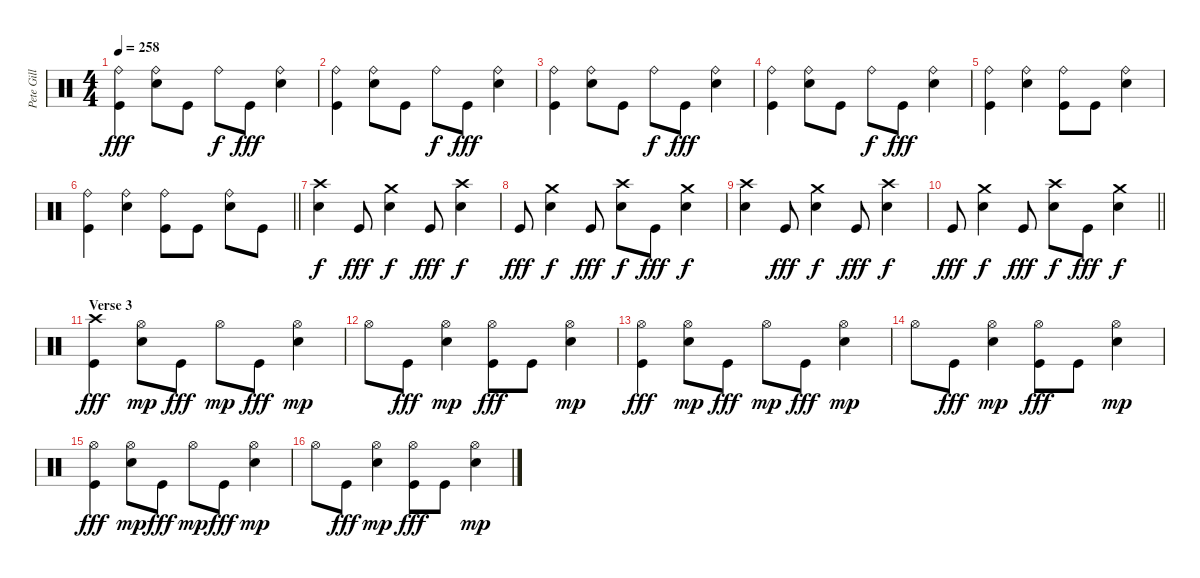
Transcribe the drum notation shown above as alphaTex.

\track ("Pete Gill" "Pete Gill") {instrument percussion}
\staff {score}
\articulation defaults
\ts (4 4)
\tempo 258
\clef neutral
\ks c
("Ride (bell)" "Kick (hit)").4{dy fff} ("Ride (bell)" "Electric Snare (hit)").8 "Kick (hit)".8 "Ride (bell)".8{dy f} "Kick (hit)".8{dy fff} ("Ride (bell)" "Electric Snare (hit)").4 |
("Ride (bell)" "Kick (hit)").4 ("Ride (bell)" "Electric Snare (hit)").8 "Kick (hit)".8 "Ride (bell)".8{dy f} "Kick (hit)".8{dy fff} ("Ride (bell)" "Electric Snare (hit)").4 |
("Ride (bell)" "Kick (hit)").4 ("Ride (bell)" "Electric Snare (hit)").8 "Kick (hit)".8 "Ride (bell)".8{dy f} "Kick (hit)".8{dy fff} ("Ride (bell)" "Electric Snare (hit)").4 |
("Ride (bell)" "Kick (hit)").4 ("Ride (bell)" "Electric Snare (hit)").8 "Kick (hit)".8 "Ride (bell)".8{dy f} "Kick (hit)".8{dy fff} ("Ride (bell)" "Electric Snare (hit)").4 |
("Ride (bell)" "Kick (hit)").4 ("Ride (bell)" "Electric Snare (hit)").4 ("Ride (bell)" "Kick (hit)").8 "Kick (hit)".8 ("Ride (bell)" "Electric Snare (hit)").4 |
\barLineRight lightlight
("Ride (bell)" "Kick (hit)").4 ("Ride (bell)" "Electric Snare (hit)").4 ("Ride (bell)" "Kick (hit)").8 "Kick (hit)".8 ("Ride (bell)" "Electric Snare (hit)").8 "Kick (hit)".8 |
("Crash high (hit)" "Electric Snare (hit)").4{dy f} "Kick (hit)".8{dy fff} ("Crash medium (hit)" "Electric Snare (hit)").4{dy f} "Kick (hit)".8{dy fff} ("Crash high (hit)" "Electric Snare (hit)").4{dy f} |
"Kick (hit)".8{dy fff} ("Crash medium (hit)" "Electric Snare (hit)").4{dy f} "Kick (hit)".8{dy fff} ("Crash high (hit)" "Electric Snare (hit)").8{dy f} "Kick (hit)".8{dy fff} ("Crash medium (hit)" "Electric Snare (hit)").4{dy f} |
("Crash high (hit)" "Electric Snare (hit)").4 "Kick (hit)".8{dy fff} ("Crash medium (hit)" "Electric Snare (hit)").4{dy f} "Kick (hit)".8{dy fff} ("Crash high (hit)" "Electric Snare (hit)").4{dy f} |
\barLineRight lightlight "Kick (hit)".8{dy fff}
("Crash medium (hit)" "Electric Snare (hit)").4{dy f} "Kick (hit)".8{dy fff} ("Crash high (hit)" "Electric Snare (hit)").8{dy f} "Kick (hit)".8{dy fff} ("Crash medium (hit)" "Electric Snare (hit)").4{dy f} |
\section ("" "Verse 3")
("Crash high (hit)" "Kick (hit)").4{dy fff} ("Hi-Hat (open)" "Electric Snare (hit)").8{dy mp} "Kick (hit)".8{dy fff} "Hi-Hat (open)".8{dy mp} "Kick (hit)".8{dy fff} ("Hi-Hat (open)" "Electric Snare (hit)").4{dy mp} |
"Hi-Hat (open)".8 "Kick (hit)".8{dy fff} ("Hi-Hat (open)" "Electric Snare (hit)").4{dy mp} ("Hi-Hat (open)" "Kick (hit)").8{dy fff} "Kick (hit)".8 ("Hi-Hat (open)" "Electric Snare (hit)").4{dy mp} |
("Hi-Hat (open)" "Kick (hit)").4{dy fff} ("Hi-Hat (open)" "Electric Snare (hit)").8{dy mp} "Kick (hit)".8{dy fff} "Hi-Hat (open)".8{dy mp} "Kick (hit)".8{dy fff} ("Hi-Hat (open)" "Electric Snare (hit)").4{dy mp} |
"Hi-Hat (open)".8 "Kick (hit)".8{dy fff} ("Hi-Hat (open)" "Electric Snare (hit)").4{dy mp} ("Hi-Hat (open)" "Kick (hit)").8{dy fff} "Kick (hit)".8 ("Hi-Hat (open)" "Electric Snare (hit)").4{dy mp} |
("Hi-Hat (open)" "Kick (hit)").4{dy fff} ("Hi-Hat (open)" "Electric Snare (hit)").8{dy mp} "Kick (hit)".8{dy fff} "Hi-Hat (open)".8{dy mp} "Kick (hit)".8{dy fff} ("Hi-Hat (open)" "Electric Snare (hit)").4{dy mp} |
"Hi-Hat (open)".8 "Kick (hit)".8{dy fff} ("Hi-Hat (open)" "Electric Snare (hit)").4{dy mp} ("Hi-Hat (open)" "Kick (hit)").8{dy fff} "Kick (hit)".8 ("Hi-Hat (open)" "Electric Snare (hit)").4{dy mp}
